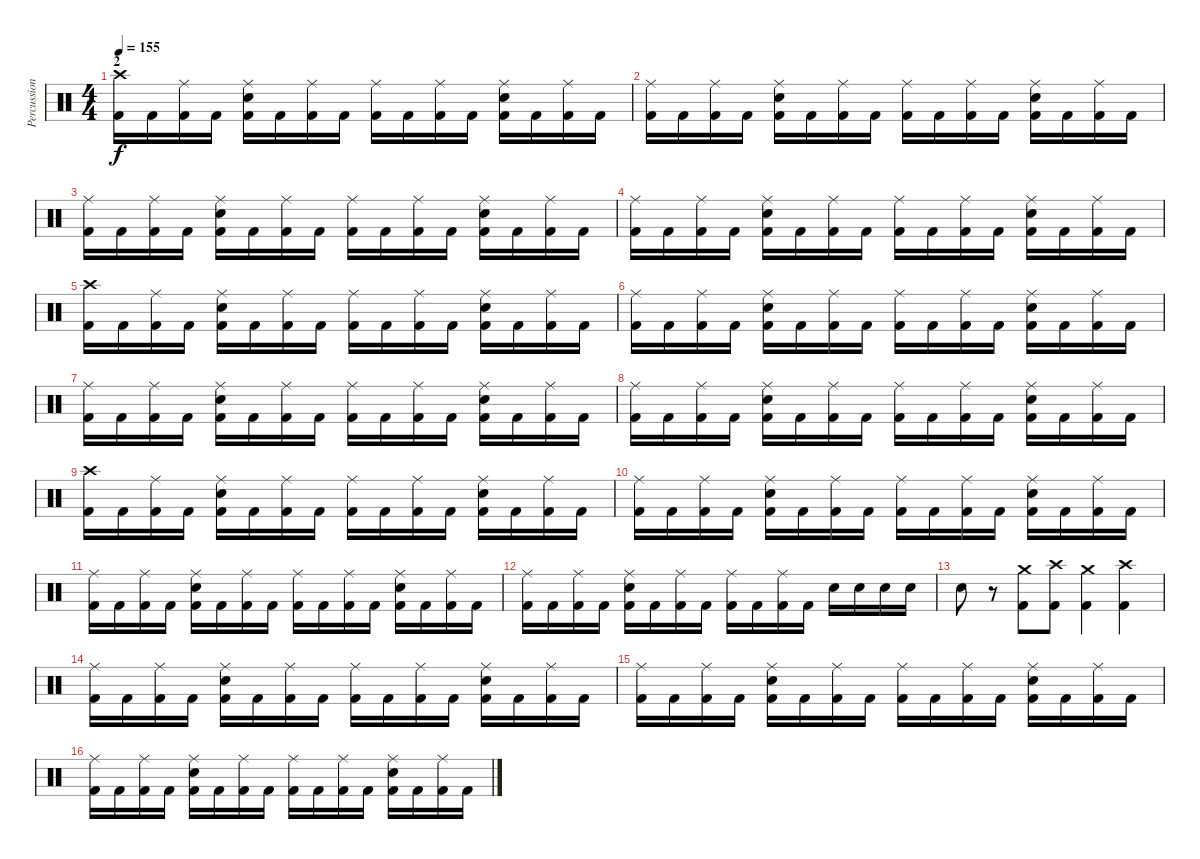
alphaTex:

\track ("Percussion" "Percussion") {instrument percussion}
\staff {score}
\articulation defaults
\ts (4 4)
\section ("" "2")
\tempo 155
\clef neutral
\ks c
("Crash high (hit)" "Kick (hit) 2").16{dy f} "Kick (hit) 2".16 ("Ride (middle)" "Kick (hit) 2").16 "Kick (hit) 2".16 ("Ride (middle)" "Snare (hit) 2" "Kick (hit) 2").16 "Kick (hit) 2".16 ("Ride (middle)" "Kick (hit) 2").16 "Kick (hit) 2".16 ("Ride (middle)" "Kick (hit) 2").16 "Kick (hit) 2".16 ("Ride (middle)" "Kick (hit) 2").16 "Kick (hit) 2".16 ("Ride (middle)" "Snare (hit) 2" "Kick (hit) 2").16 "Kick (hit) 2".16 ("Ride (middle)" "Kick (hit) 2").16 "Kick (hit) 2".16 |
("Ride (middle)" "Kick (hit) 2").16 "Kick (hit) 2".16 ("Ride (middle)" "Kick (hit) 2").16 "Kick (hit) 2".16 ("Ride (middle)" "Snare (hit) 2" "Kick (hit) 2").16 "Kick (hit) 2".16 ("Ride (middle)" "Kick (hit) 2").16 "Kick (hit) 2".16 ("Ride (middle)" "Kick (hit) 2").16 "Kick (hit) 2".16 ("Ride (middle)" "Kick (hit) 2").16 "Kick (hit) 2".16 ("Ride (middle)" "Snare (hit) 2" "Kick (hit) 2").16 "Kick (hit) 2".16 ("Ride (middle)" "Kick (hit) 2").16 "Kick (hit) 2".16 |
("Ride (middle)" "Kick (hit) 2").16 "Kick (hit) 2".16 ("Ride (middle)" "Kick (hit) 2").16 "Kick (hit) 2".16 ("Ride (middle)" "Snare (hit) 2" "Kick (hit) 2").16 "Kick (hit) 2".16 ("Ride (middle)" "Kick (hit) 2").16 "Kick (hit) 2".16 ("Ride (middle)" "Kick (hit) 2").16 "Kick (hit) 2".16 ("Ride (middle)" "Kick (hit) 2").16 "Kick (hit) 2".16 ("Ride (middle)" "Snare (hit) 2" "Kick (hit) 2").16 "Kick (hit) 2".16 ("Ride (middle)" "Kick (hit) 2").16 "Kick (hit) 2".16 |
("Ride (middle)" "Kick (hit) 2").16 "Kick (hit) 2".16 ("Ride (middle)" "Kick (hit) 2").16 "Kick (hit) 2".16 ("Ride (middle)" "Snare (hit) 2" "Kick (hit) 2").16 "Kick (hit) 2".16 ("Ride (middle)" "Kick (hit) 2").16 "Kick (hit) 2".16 ("Ride (middle)" "Kick (hit) 2").16 "Kick (hit) 2".16 ("Ride (middle)" "Kick (hit) 2").16 "Kick (hit) 2".16 ("Ride (middle)" "Snare (hit) 2" "Kick (hit) 2").16 "Kick (hit) 2".16 ("Ride (middle)" "Kick (hit) 2").16 "Kick (hit) 2".16 |
("Crash high (hit)" "Kick (hit) 2").16 "Kick (hit) 2".16 ("Ride (middle)" "Kick (hit) 2").16 "Kick (hit) 2".16 ("Ride (middle)" "Snare (hit) 2" "Kick (hit) 2").16 "Kick (hit) 2".16 ("Ride (middle)" "Kick (hit) 2").16 "Kick (hit) 2".16 ("Ride (middle)" "Kick (hit) 2").16 "Kick (hit) 2".16 ("Ride (middle)" "Kick (hit) 2").16 "Kick (hit) 2".16 ("Ride (middle)" "Snare (hit) 2" "Kick (hit) 2").16 "Kick (hit) 2".16 ("Ride (middle)" "Kick (hit) 2").16 "Kick (hit) 2".16 |
("Ride (middle)" "Kick (hit) 2").16 "Kick (hit) 2".16 ("Ride (middle)" "Kick (hit) 2").16 "Kick (hit) 2".16 ("Ride (middle)" "Snare (hit) 2" "Kick (hit) 2").16 "Kick (hit) 2".16 ("Ride (middle)" "Kick (hit) 2").16 "Kick (hit) 2".16 ("Ride (middle)" "Kick (hit) 2").16 "Kick (hit) 2".16 ("Ride (middle)" "Kick (hit) 2").16 "Kick (hit) 2".16 ("Ride (middle)" "Snare (hit) 2" "Kick (hit) 2").16 "Kick (hit) 2".16 ("Ride (middle)" "Kick (hit) 2").16 "Kick (hit) 2".16 |
("Ride (middle)" "Kick (hit) 2").16 "Kick (hit) 2".16 ("Ride (middle)" "Kick (hit) 2").16 "Kick (hit) 2".16 ("Ride (middle)" "Snare (hit) 2" "Kick (hit) 2").16 "Kick (hit) 2".16 ("Ride (middle)" "Kick (hit) 2").16 "Kick (hit) 2".16 ("Ride (middle)" "Kick (hit) 2").16 "Kick (hit) 2".16 ("Ride (middle)" "Kick (hit) 2").16 "Kick (hit) 2".16 ("Ride (middle)" "Snare (hit) 2" "Kick (hit) 2").16 "Kick (hit) 2".16 ("Ride (middle)" "Kick (hit) 2").16 "Kick (hit) 2".16 |
("Ride (middle)" "Kick (hit) 2").16 "Kick (hit) 2".16 ("Ride (middle)" "Kick (hit) 2").16 "Kick (hit) 2".16 ("Ride (middle)" "Snare (hit) 2" "Kick (hit) 2").16 "Kick (hit) 2".16 ("Ride (middle)" "Kick (hit) 2").16 "Kick (hit) 2".16 ("Ride (middle)" "Kick (hit) 2").16 "Kick (hit) 2".16 ("Ride (middle)" "Kick (hit) 2").16 "Kick (hit) 2".16 ("Ride (middle)" "Snare (hit) 2" "Kick (hit) 2").16 "Kick (hit) 2".16 ("Ride (middle)" "Kick (hit) 2").16 "Kick (hit) 2".16 |
("Crash high (hit)" "Kick (hit) 2").16 "Kick (hit) 2".16 ("Ride (middle)" "Kick (hit) 2").16 "Kick (hit) 2".16 ("Ride (middle)" "Snare (hit) 2" "Kick (hit) 2").16 "Kick (hit) 2".16 ("Ride (middle)" "Kick (hit) 2").16 "Kick (hit) 2".16 ("Ride (middle)" "Kick (hit) 2").16 "Kick (hit) 2".16 ("Ride (middle)" "Kick (hit) 2").16 "Kick (hit) 2".16 ("Ride (middle)" "Snare (hit) 2" "Kick (hit) 2").16 "Kick (hit) 2".16 ("Ride (middle)" "Kick (hit) 2").16 "Kick (hit) 2".16 |
("Ride (middle)" "Kick (hit) 2").16 "Kick (hit) 2".16 ("Ride (middle)" "Kick (hit) 2").16 "Kick (hit) 2".16 ("Ride (middle)" "Snare (hit) 2" "Kick (hit) 2").16 "Kick (hit) 2".16 ("Ride (middle)" "Kick (hit) 2").16 "Kick (hit) 2".16 ("Ride (middle)" "Kick (hit) 2").16 "Kick (hit) 2".16 ("Ride (middle)" "Kick (hit) 2").16 "Kick (hit) 2".16 ("Ride (middle)" "Snare (hit) 2" "Kick (hit) 2").16 "Kick (hit) 2".16 ("Ride (middle)" "Kick (hit) 2").16 "Kick (hit) 2".16 |
("Ride (middle)" "Kick (hit) 2").16 "Kick (hit) 2".16 ("Ride (middle)" "Kick (hit) 2").16 "Kick (hit) 2".16 ("Ride (middle)" "Snare (hit) 2" "Kick (hit) 2").16 "Kick (hit) 2".16 ("Ride (middle)" "Kick (hit) 2").16 "Kick (hit) 2".16 ("Ride (middle)" "Kick (hit) 2").16 "Kick (hit) 2".16 ("Ride (middle)" "Kick (hit) 2").16 "Kick (hit) 2".16 ("Ride (middle)" "Snare (hit) 2" "Kick (hit) 2").16 "Kick (hit) 2".16 ("Ride (middle)" "Kick (hit) 2").16 "Kick (hit) 2".16 |
("Ride (middle)" "Kick (hit) 2").16 "Kick (hit) 2".16 ("Ride (middle)" "Kick (hit) 2").16 "Kick (hit) 2".16 ("Ride (middle)" "Snare (hit) 2" "Kick (hit) 2").16 "Kick (hit) 2".16 ("Ride (middle)" "Kick (hit) 2").16 "Kick (hit) 2".16 ("Ride (middle)" "Kick (hit) 2").16 "Kick (hit) 2".16 ("Ride (middle)" "Kick (hit) 2").16 "Kick (hit) 2".16 "Snare (hit) 2".16 "Snare (hit) 2".16 "Snare (hit) 2".16 "Snare (hit) 2".16 |
"Snare (hit) 2".8 r.8 ("Crash medium (hit)" "Kick (hit) 2").8 ("Crash high (hit)" "Kick (hit) 2").8 ("Crash medium (hit)" "Kick (hit) 2").4 ("Crash high (hit)" "Kick (hit) 2").4 |
("Ride (middle)" "Kick (hit) 2").16 "Kick (hit) 2".16 ("Ride (middle)" "Kick (hit) 2").16 "Kick (hit) 2".16 ("Ride (middle)" "Snare (hit) 2" "Kick (hit) 2").16 "Kick (hit) 2".16 ("Ride (middle)" "Kick (hit) 2").16 "Kick (hit) 2".16 ("Ride (middle)" "Kick (hit) 2").16 "Kick (hit) 2".16 ("Ride (middle)" "Kick (hit) 2").16 "Kick (hit) 2".16 ("Ride (middle)" "Snare (hit) 2" "Kick (hit) 2").16 "Kick (hit) 2".16 ("Ride (middle)" "Kick (hit) 2").16 "Kick (hit) 2".16 |
("Ride (middle)" "Kick (hit) 2").16 "Kick (hit) 2".16 ("Ride (middle)" "Kick (hit) 2").16 "Kick (hit) 2".16 ("Ride (middle)" "Snare (hit) 2" "Kick (hit) 2").16 "Kick (hit) 2".16 ("Ride (middle)" "Kick (hit) 2").16 "Kick (hit) 2".16 ("Ride (middle)" "Kick (hit) 2").16 "Kick (hit) 2".16 ("Ride (middle)" "Kick (hit) 2").16 "Kick (hit) 2".16 ("Ride (middle)" "Snare (hit) 2" "Kick (hit) 2").16 "Kick (hit) 2".16 ("Ride (middle)" "Kick (hit) 2").16 "Kick (hit) 2".16 |
("Ride (middle)" "Kick (hit) 2").16 "Kick (hit) 2".16 ("Ride (middle)" "Kick (hit) 2").16 "Kick (hit) 2".16 ("Ride (middle)" "Snare (hit) 2" "Kick (hit) 2").16 "Kick (hit) 2".16 ("Ride (middle)" "Kick (hit) 2").16 "Kick (hit) 2".16 ("Ride (middle)" "Kick (hit) 2").16 "Kick (hit) 2".16 ("Ride (middle)" "Kick (hit) 2").16 "Kick (hit) 2".16 ("Ride (middle)" "Snare (hit) 2" "Kick (hit) 2").16 "Kick (hit) 2".16 ("Ride (middle)" "Kick (hit) 2").16 "Kick (hit) 2".16
